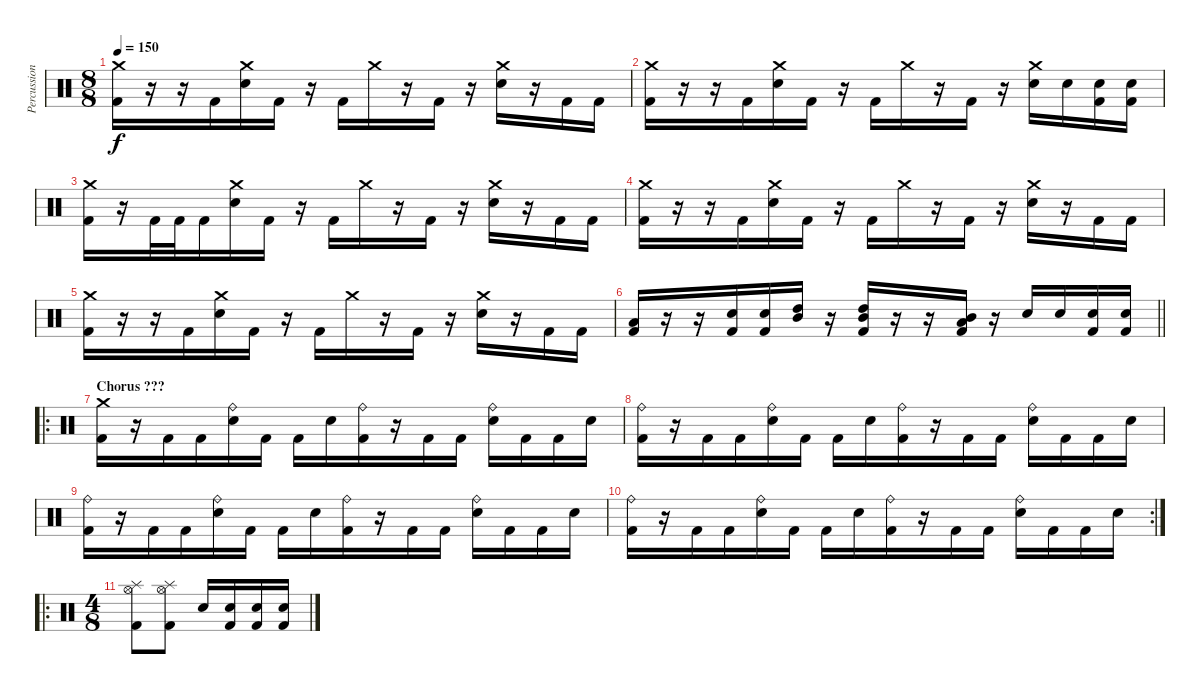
\track ("Percussions" "Percussion") {instrument percussion}
\staff {score}
\articulation defaults
\ts (8 8)
\tempo 150
\clef neutral
\ks c
("Crash medium (hit)" "Kick (hit) 2").16{dy f} r.16 r.16 "Kick (hit) 2".16 ("Crash medium (hit)" "Electric Snare (hit)").16 "Kick (hit) 2".16 r.16 "Kick (hit) 2".16 "Crash medium (hit)".16 r.16 "Kick (hit) 2".16 r.16 ("Crash medium (hit)" "Electric Snare (hit)").16 r.16 "Kick (hit) 2".16 "Kick (hit) 2".16 |
("Crash medium (hit)" "Kick (hit) 2").16 r.16 r.16 "Kick (hit) 2".16 ("Crash medium (hit)" "Electric Snare (hit)").16 "Kick (hit) 2".16 r.16 "Kick (hit) 2".16 "Crash medium (hit)".16 r.16 "Kick (hit) 2".16 r.16 ("Crash medium (hit)" "Electric Snare (hit)").16 "Electric Snare (hit)".16 ("Electric Snare (hit)" "Kick (hit) 2").16 ("Electric Snare (hit)" "Kick (hit) 2").16 |
("Crash medium (hit)" "Kick (hit) 2").16 r.16 "Kick (hit) 2".32 "Kick (hit) 2".32 "Kick (hit) 2".16 ("Crash medium (hit)" "Electric Snare (hit)").16 "Kick (hit) 2".16 r.16 "Kick (hit) 2".16 "Crash medium (hit)".16 r.16 "Kick (hit) 2".16 r.16 ("Crash medium (hit)" "Electric Snare (hit)").16 r.16 "Kick (hit) 2".16 "Kick (hit) 2".16 |
("Crash medium (hit)" "Kick (hit) 2").16 r.16 r.16 "Kick (hit) 2".16 ("Crash medium (hit)" "Electric Snare (hit)").16 "Kick (hit) 2".16 r.16 "Kick (hit) 2".16 "Crash medium (hit)".16 r.16 "Kick (hit) 2".16 r.16 ("Crash medium (hit)" "Electric Snare (hit)").16 r.16 "Kick (hit) 2".16 "Kick (hit) 2".16 |
("Crash medium (hit)" "Kick (hit) 2").16 r.16 r.16 "Kick (hit) 2".16 ("Crash medium (hit)" "Electric Snare (hit)").16 "Kick (hit) 2".16 r.16 "Kick (hit) 2".16 "Crash medium (hit)".16 r.16 "Kick (hit) 2".16 r.16 ("Crash medium (hit)" "Electric Snare (hit)").16 r.16 "Kick (hit) 2".16 "Kick (hit) 2".16 |
\barLineRight lightlight
("Low Tom (hit)" "Kick (hit) 2").16 r.16 r.16 ("Electric Snare (hit)" "Kick (hit) 2").16 ("Electric Snare (hit)" "Kick (hit) 2").16 ("Mid Tom (hit)" "High Tom (hit)").16 r.16 ("High Tom (hit)" "Mid Tom (hit)" "Kick (hit) 2").16 r.16 r.16 ("Mid Tom (hit)" "Low Tom (hit)" "Kick (hit) 2").16 r.16 "Electric Snare (hit)".16 "Electric Snare (hit)".16 ("Electric Snare (hit)" "Kick (hit) 2").16 ("Electric Snare (hit)" "Kick (hit) 2").16 |
\ro
\section ("" "Chorus ???")
("Crash medium (hit)" "Kick (hit) 2").16 r.16 "Kick (hit) 2".16 "Kick (hit) 2".16 ("Ride (bell)" "Electric Snare (hit)").16 "Kick (hit) 2".16 "Kick (hit) 2".16 "Electric Snare (hit)".16 ("Ride (bell)" "Kick (hit) 2").16 r.16 "Kick (hit) 2".16 "Kick (hit) 2".16 ("Ride (bell)" "Electric Snare (hit)").16 "Kick (hit) 2".16 "Kick (hit) 2".16 "Electric Snare (hit)".16 |
("Ride (bell)" "Kick (hit) 2").16 r.16 "Kick (hit) 2".16 "Kick (hit) 2".16 ("Ride (bell)" "Electric Snare (hit)").16 "Kick (hit) 2".16 "Kick (hit) 2".16 "Electric Snare (hit)".16 ("Ride (bell)" "Kick (hit) 2").16 r.16 "Kick (hit) 2".16 "Kick (hit) 2".16 ("Ride (bell)" "Electric Snare (hit)").16 "Kick (hit) 2".16 "Kick (hit) 2".16 "Electric Snare (hit)".16 |
("Ride (bell)" "Kick (hit) 2").16 r.16 "Kick (hit) 2".16 "Kick (hit) 2".16 ("Ride (bell)" "Electric Snare (hit)").16 "Kick (hit) 2".16 "Kick (hit) 2".16 "Electric Snare (hit)".16 ("Ride (bell)" "Kick (hit) 2").16 r.16 "Kick (hit) 2".16 "Kick (hit) 2".16 ("Ride (bell)" "Electric Snare (hit)").16 "Kick (hit) 2".16 "Kick (hit) 2".16 "Electric Snare (hit)".16 |
\rc 2
("Ride (bell)" "Kick (hit) 2").16 r.16 "Kick (hit) 2".16 "Kick (hit) 2".16 ("Ride (bell)" "Electric Snare (hit)").16 "Kick (hit) 2".16 "Kick (hit) 2".16 "Electric Snare (hit)".16 ("Ride (bell)" "Kick (hit) 2").16 r.16 "Kick (hit) 2".16 "Kick (hit) 2".16 ("Ride (bell)" "Electric Snare (hit)").16 "Kick (hit) 2".16 "Kick (hit) 2".16 "Electric Snare (hit)".16 |
\ro
\ts (4 8)
("Splash (hit)" "Hi-Hat (open)" "Kick (hit) 2").8 ("Splash (hit)" "Hi-Hat (open)" "Kick (hit) 2").8 "Electric Snare (hit)".16 ("Electric Snare (hit)" "Kick (hit) 2").16 ("Electric Snare (hit)" "Kick (hit) 2").16 ("Electric Snare (hit)" "Kick (hit) 2").16
